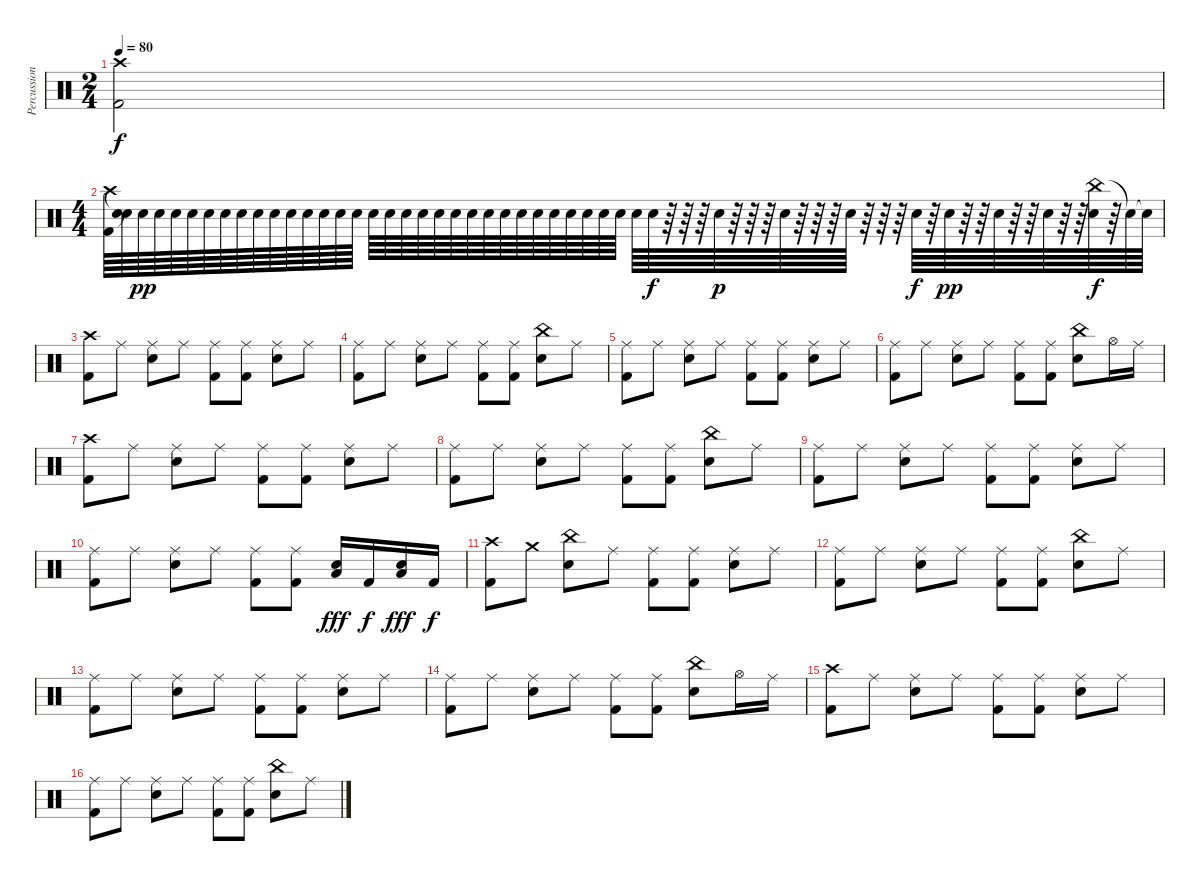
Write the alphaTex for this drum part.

\track ("Percussion" "Percussion") {instrument percussion}
\staff {score}
\articulation defaults
\ts (2 4)
\tempo 80
\clef neutral
\ks c
("Kick (hit) 2" "Crash high (hit)").2{dy f} |
\ts (4 4)
("Kick (hit) 2" "Crash high (hit)").64 ("Snare (hit)"{t} "Snare (hit)"{t}).64 "Electric Snare (hit)".64{dy pp} "Electric Snare (hit)".64 "Electric Snare (hit)".64 "Electric Snare (hit)".64 "Electric Snare (hit)".64 "Electric Snare (hit)".64 "Electric Snare (hit)".64 "Electric Snare (hit)".64 "Electric Snare (hit)".64 "Electric Snare (hit)".64 "Electric Snare (hit)".64 "Electric Snare (hit)".64 "Electric Snare (hit)".64 "Electric Snare (hit)".64 "Electric Snare (hit)".64 "Electric Snare (hit)".64 "Electric Snare (hit)".64 "Electric Snare (hit)".64 "Electric Snare (hit)".64 "Electric Snare (hit)".64 "Electric Snare (hit)".64 "Electric Snare (hit)".64 "Electric Snare (hit)".64 "Electric Snare (hit)".64 "Electric Snare (hit)".64 "Electric Snare (hit)".64 "Electric Snare (hit)".64 "Electric Snare (hit)".64 "Electric Snare (hit)".64 "Electric Snare (hit)".64 "Electric Snare (hit)".64 "Electric Snare (hit)".64{dy f} r.64 r.64 r.64 "Electric Snare (hit)".64{dy p} r.64 r.64 r.64 "Electric Snare (hit)".64 r.64 r.64 r.64 "Electric Snare (hit)".64 r.64 r.64 r.64 "Electric Snare (hit)".64{dy f} r.64 "Electric Snare (hit)".64{dy pp} r.64 r.64 "Electric Snare (hit)".64 r.64 r.64 "Electric Snare (hit)".64 r.64 r.64 ("China (hit)" "Electric Snare (hit)").64{dy f} r.64 "Electric Snare (hit)"{t}.64 "Electric Snare (hit)"{t}.64 |
("Kick (hit) 2" "Crash high (hit)").8 "Ride (middle)".8 ("Electric Snare (hit)" "Ride (middle)").8 "Ride (middle)".8 ("Kick (hit) 2" "Ride (middle)").8 ("Kick (hit) 2" "Ride (middle)").8 ("Electric Snare (hit)" "Ride (middle)").8 "Ride (middle)".8 |
("Kick (hit) 2" "Ride (middle)").8 "Ride (middle)".8 ("Electric Snare (hit)" "Ride (middle)").8 "Ride (middle)".8 ("Kick (hit) 2" "Ride (middle)").8 ("Kick (hit) 2" "Ride (middle)").8 ("Electric Snare (hit)" "China (hit)").8 "Ride (middle)".8 |
("Kick (hit) 2" "Ride (middle)").8 "Ride (middle)".8 ("Electric Snare (hit)" "Ride (middle)").8 "Ride (middle)".8 ("Kick (hit) 2" "Ride (middle)").8 ("Kick (hit) 2" "Ride (middle)").8 ("Electric Snare (hit)" "Ride (middle)").8 "Ride (middle)".8 |
("Kick (hit) 2" "Ride (middle)").8 "Ride (middle)".8 ("Electric Snare (hit)" "Ride (middle)").8 "Ride (middle)".8 ("Kick (hit) 2" "Ride (middle)").8 ("Kick (hit) 2" "Ride (middle)").8 ("Electric Snare (hit)" "China (hit)").8 "Hi-Hat (open)".16 "Ride (middle)".16 |
("Kick (hit) 2" "Crash high (hit)").8 "Ride (middle)".8 ("Electric Snare (hit)" "Ride (middle)").8 "Ride (middle)".8 ("Kick (hit) 2" "Ride (middle)").8 ("Kick (hit) 2" "Ride (middle)").8 ("Electric Snare (hit)" "Ride (middle)").8 "Ride (middle)".8 |
("Kick (hit) 2" "Ride (middle)").8 "Ride (middle)".8 ("Electric Snare (hit)" "Ride (middle)").8 "Ride (middle)".8 ("Kick (hit) 2" "Ride (middle)").8 ("Kick (hit) 2" "Ride (middle)").8 ("Electric Snare (hit)" "China (hit)").8 "Ride (middle)".8 |
("Kick (hit) 2" "Ride (middle)").8 "Ride (middle)".8 ("Electric Snare (hit)" "Ride (middle)").8 "Ride (middle)".8 ("Kick (hit) 2" "Ride (middle)").8 ("Kick (hit) 2" "Ride (middle)").8 ("Electric Snare (hit)" "Ride (middle)").8 "Ride (middle)".8 |
("Kick (hit) 2" "Ride (middle)").8 "Ride (middle)".8 ("Electric Snare (hit)" "Ride (middle)").8 "Ride (middle)".8 ("Kick (hit) 2" "Ride (middle)").8 ("Kick (hit) 2" "Ride (middle)").8 ("Electric Snare (hit)" "Low Tom (hit)").16{dy fff} "Kick (hit) 2".16{dy f} ("Electric Snare (hit)" "Low Tom (hit)").16{dy fff} "Kick (hit) 2".16{dy f} |
("Kick (hit) 2" "Crash high (hit)").8 "Crash medium (hit)".8 ("Electric Snare (hit)" "China (hit)").8 "Ride (middle)".8 ("Kick (hit) 2" "Ride (middle)").8 ("Kick (hit) 2" "Ride (middle)").8 ("Electric Snare (hit)" "Ride (middle)").8 "Ride (middle)".8 |
("Kick (hit) 2" "Ride (middle)").8 "Ride (middle)".8 ("Electric Snare (hit)" "Ride (middle)").8 "Ride (middle)".8 ("Kick (hit) 2" "Ride (middle)").8 ("Kick (hit) 2" "Ride (middle)").8 ("Electric Snare (hit)" "China (hit)").8 "Ride (middle)".8 |
("Kick (hit) 2" "Ride (middle)").8 "Ride (middle)".8 ("Electric Snare (hit)" "Ride (middle)").8 "Ride (middle)".8 ("Kick (hit) 2" "Ride (middle)").8 ("Kick (hit) 2" "Ride (middle)").8 ("Electric Snare (hit)" "Ride (middle)").8 "Ride (middle)".8 |
("Kick (hit) 2" "Ride (middle)").8 "Ride (middle)".8 ("Electric Snare (hit)" "Ride (middle)").8 "Ride (middle)".8 ("Kick (hit) 2" "Ride (middle)").8 ("Kick (hit) 2" "Ride (middle)").8 ("Electric Snare (hit)" "China (hit)").8 "Hi-Hat (open)".16 "Ride (middle)".16 |
("Kick (hit) 2" "Crash high (hit)").8 "Ride (middle)".8 ("Electric Snare (hit)" "Ride (middle)").8 "Ride (middle)".8 ("Kick (hit) 2" "Ride (middle)").8 ("Kick (hit) 2" "Ride (middle)").8 ("Electric Snare (hit)" "Ride (middle)").8 "Ride (middle)".8 |
("Kick (hit) 2" "Ride (middle)").8 "Ride (middle)".8 ("Electric Snare (hit)" "Ride (middle)").8 "Ride (middle)".8 ("Kick (hit) 2" "Ride (middle)").8 ("Kick (hit) 2" "Ride (middle)").8 ("Electric Snare (hit)" "China (hit)").8 "Ride (middle)".8
